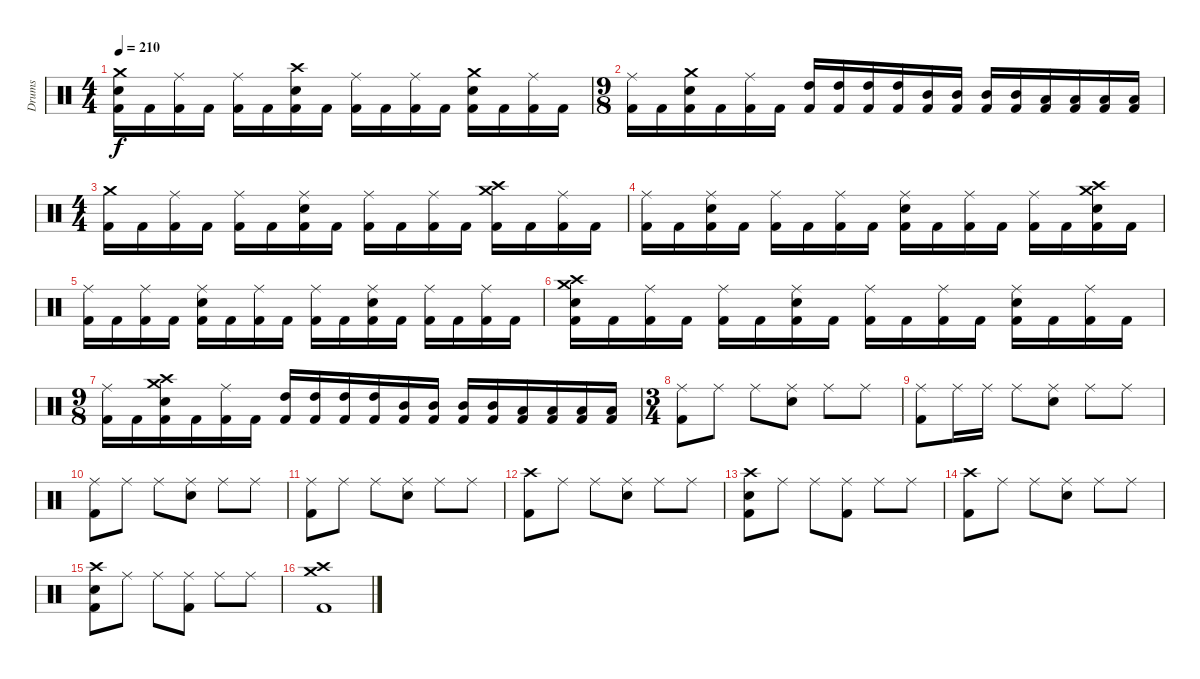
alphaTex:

\track ("Drums" "Drums") {instrument percussion}
\staff {score}
\articulation defaults
\ts (4 4)
\tempo 210
\clef neutral
\ks c
("Kick (hit) 2" "Electric Snare (hit)" "Crash medium (hit)").16{dy f} "Kick (hit) 2".16 ("Kick (hit) 2" "Ride (middle)").16 "Kick (hit) 2".16 ("Kick (hit) 2" "Ride (middle)").16 "Kick (hit) 2".16 ("Kick (hit) 2" "Electric Snare (hit)" "Crash high (hit)").16 "Kick (hit) 2".16 ("Kick (hit) 2" "Ride (middle)").16 "Kick (hit) 2".16 ("Kick (hit) 2" "Ride (middle)").16 "Kick (hit) 2".16 ("Kick (hit) 2" "Electric Snare (hit)" "Crash medium (hit)").16 "Kick (hit) 2".16 ("Kick (hit) 2" "Ride (middle)").16 "Kick (hit) 2".16 |
\ts (9 8)
("Kick (hit) 2" "Ride (middle)").16 "Kick (hit) 2".16 ("Kick (hit) 2" "Electric Snare (hit)" "Crash medium (hit)").16 "Kick (hit) 2".16 ("Kick (hit) 2" "Ride (middle)").16 "Kick (hit) 2".16 ("Kick (hit) 2" "High Tom (hit)").16 ("Kick (hit) 2" "High Tom (hit)").16 ("Kick (hit) 2" "High Tom (hit)").16 ("Kick (hit) 2" "High Tom (hit)").16 ("Kick (hit) 2" "Mid Tom (hit)").16 ("Kick (hit) 2" "Mid Tom (hit)").16 ("Kick (hit) 2" "Mid Tom (hit)").16 ("Kick (hit) 2" "Mid Tom (hit)").16 ("Kick (hit) 2" "Low Tom (hit)").16 ("Kick (hit) 2" "Low Tom (hit)").16 ("Kick (hit) 2" "Low Tom (hit)").16 ("Kick (hit) 2" "Low Tom (hit)").16 |
\ts (4 4)
("Kick (hit) 2" "Crash medium (hit)").16 "Kick (hit) 2".16 ("Kick (hit) 2" "Ride (middle)").16 "Kick (hit) 2".16 ("Kick (hit) 2" "Ride (middle)").16 "Kick (hit) 2".16 ("Kick (hit) 2" "Electric Snare (hit)" "Ride (middle)").16 "Kick (hit) 2".16 ("Kick (hit) 2" "Ride (middle)").16 "Kick (hit) 2".16 ("Kick (hit) 2" "Ride (middle)").16 "Kick (hit) 2".16 ("Kick (hit) 2" "Crash high (hit)" "Crash medium (hit)").16 "Kick (hit) 2".16 ("Kick (hit) 2" "Ride (middle)").16 "Kick (hit) 2".16 |
("Kick (hit) 2" "Ride (middle)").16 "Kick (hit) 2".16 ("Kick (hit) 2" "Electric Snare (hit)" "Ride (middle)").16 "Kick (hit) 2".16 ("Kick (hit) 2" "Ride (middle)").16 "Kick (hit) 2".16 ("Kick (hit) 2" "Ride (middle)").16 "Kick (hit) 2".16 ("Kick (hit) 2" "Electric Snare (hit)" "Ride (middle)").16 "Kick (hit) 2".16 ("Kick (hit) 2" "Ride (middle)").16 "Kick (hit) 2".16 ("Kick (hit) 2" "Ride (middle)").16 "Kick (hit) 2".16 ("Kick (hit) 2" "Electric Snare (hit)" "Crash high (hit)" "Crash medium (hit)").16 "Kick (hit) 2".16 |
("Kick (hit) 2" "Ride (middle)").16 "Kick (hit) 2".16 ("Kick (hit) 2" "Ride (middle)").16 "Kick (hit) 2".16 ("Kick (hit) 2" "Electric Snare (hit)" "Ride (middle)").16 "Kick (hit) 2".16 ("Kick (hit) 2" "Ride (middle)").16 "Kick (hit) 2".16 ("Kick (hit) 2" "Ride (middle)").16 "Kick (hit) 2".16 ("Kick (hit) 2" "Electric Snare (hit)" "Ride (middle)").16 "Kick (hit) 2".16 ("Kick (hit) 2" "Ride (middle)").16 "Kick (hit) 2".16 ("Kick (hit) 2" "Ride (middle)").16 "Kick (hit) 2".16 |
("Kick (hit) 2" "Electric Snare (hit)" "Crash high (hit)" "Crash medium (hit)").16 "Kick (hit) 2".16 ("Kick (hit) 2" "Ride (middle)").16 "Kick (hit) 2".16 ("Kick (hit) 2" "Ride (middle)").16 "Kick (hit) 2".16 ("Kick (hit) 2" "Electric Snare (hit)" "Ride (middle)").16 "Kick (hit) 2".16 ("Kick (hit) 2" "Ride (middle)").16 "Kick (hit) 2".16 ("Kick (hit) 2" "Ride (middle)").16 "Kick (hit) 2".16 ("Kick (hit) 2" "Electric Snare (hit)" "Ride (middle)").16 "Kick (hit) 2".16 ("Kick (hit) 2" "Ride (middle)").16 "Kick (hit) 2".16 |
\ts (9 8)
("Kick (hit) 2" "Ride (middle)").16 "Kick (hit) 2".16 ("Kick (hit) 2" "Electric Snare (hit)" "Crash high (hit)" "Crash medium (hit)").16 "Kick (hit) 2".16 ("Kick (hit) 2" "Ride (middle)").16 "Kick (hit) 2".16 ("Kick (hit) 2" "High Tom (hit)").16 ("Kick (hit) 2" "High Tom (hit)").16 ("Kick (hit) 2" "High Tom (hit)").16 ("Kick (hit) 2" "High Tom (hit)").16 ("Kick (hit) 2" "Mid Tom (hit)").16 ("Kick (hit) 2" "Mid Tom (hit)").16 ("Kick (hit) 2" "Mid Tom (hit)").16 ("Kick (hit) 2" "Mid Tom (hit)").16 ("Kick (hit) 2" "Low Tom (hit)").16 ("Kick (hit) 2" "Low Tom (hit)").16 ("Kick (hit) 2" "Low Tom (hit)").16 ("Kick (hit) 2" "Low Tom (hit)").16 |
\ts (3 4)
("Kick (hit) 2" "Ride (middle)").8 "Ride (middle)".8 "Ride (middle)".8 ("Electric Snare (hit)" "Ride (middle)").8 "Ride (middle)".8 "Ride (middle)".8 |
("Kick (hit) 2" "Ride (middle)").8 "Ride (middle)".16 "Ride (middle)".16 "Ride (middle)".8 ("Electric Snare (hit)" "Ride (middle)").8 "Ride (middle)".8 "Ride (middle)".8 |
("Kick (hit) 2" "Ride (middle)").8 "Ride (middle)".8 "Ride (middle)".8 ("Electric Snare (hit)" "Ride (middle)").8 "Ride (middle)".8 "Ride (middle)".8 |
("Kick (hit) 2" "Ride (middle)").8 "Ride (middle)".8 "Ride (middle)".8 ("Electric Snare (hit)" "Ride (middle)").8 "Ride (middle)".8 "Ride (middle)".8 |
("Kick (hit) 2" "Crash high (hit)").8 "Ride (middle)".8 "Ride (middle)".8 ("Electric Snare (hit)" "Ride (middle)").8 "Ride (middle)".8 "Ride (middle)".8 |
("Kick (hit) 2" "Electric Snare (hit)" "Crash high (hit)").8 "Ride (middle)".8 "Ride (middle)".8 ("Kick (hit) 2" "Ride (middle)").8 "Ride (middle)".8 "Ride (middle)".8 |
("Kick (hit) 2" "Crash high (hit)").8 "Ride (middle)".8 "Ride (middle)".8 ("Electric Snare (hit)" "Ride (middle)").8 "Ride (middle)".8 "Ride (middle)".8 |
("Kick (hit) 2" "Electric Snare (hit)" "Crash high (hit)").8 "Ride (middle)".8 "Ride (middle)".8 ("Kick (hit) 2" "Ride (middle)").8 "Ride (middle)".8 "Ride (middle)".8 |
("Kick (hit) 2" "Crash high (hit)" "Crash medium (hit)").1
